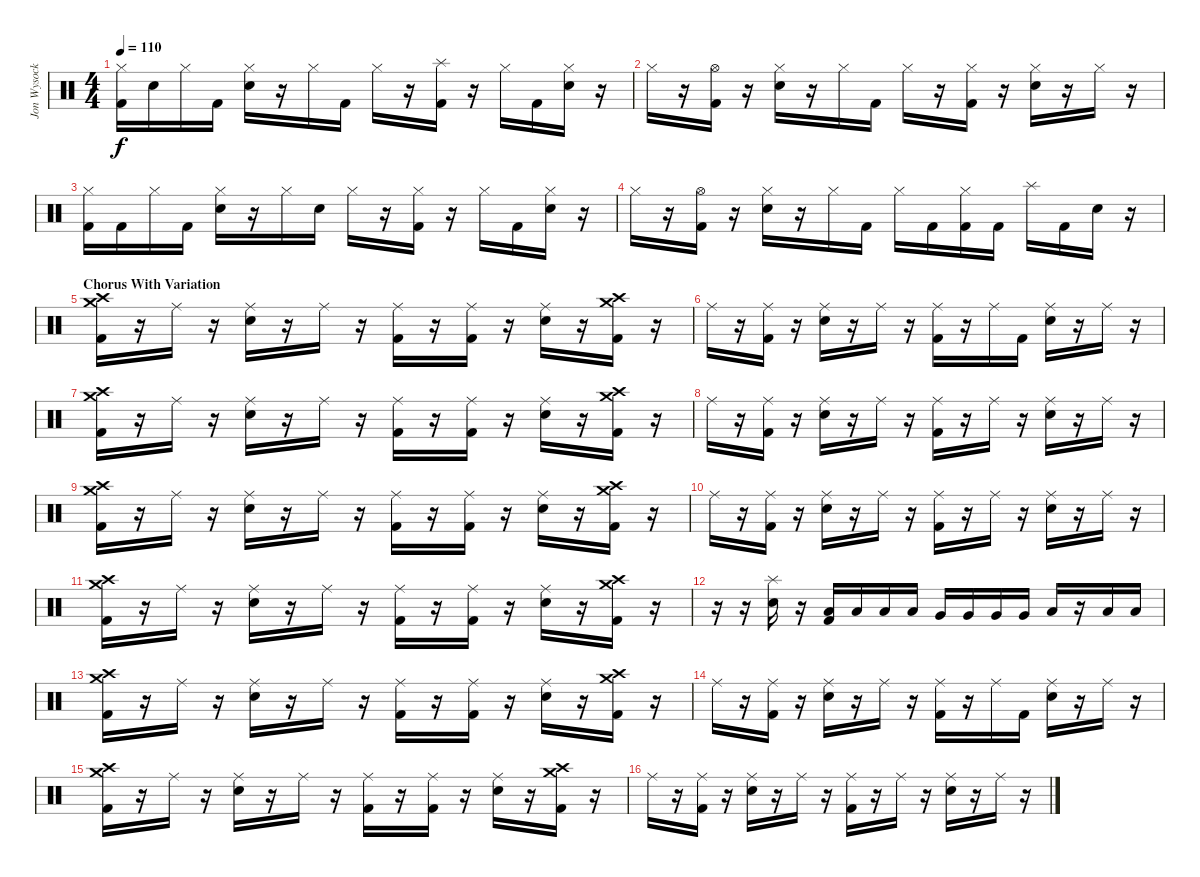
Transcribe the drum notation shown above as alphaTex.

\track ("Jon Wysocki" "Jon Wysock") {instrument percussion}
\staff {score}
\articulation defaults
\ts (4 4)
\tempo 110
\clef neutral
\ks c
("Hi-Hat (closed)" "Kick (hit) 2").16{dy f} "Snare (hit) 2".16 "Hi-Hat (closed)".16 "Kick (hit) 2".16 ("Hi-Hat (closed)" "Snare (hit) 2").16 r.16 "Hi-Hat (closed)".16 "Kick (hit) 2".16 "Hi-Hat (closed)".16 r.16 ("Splash (hit)" "Kick (hit) 2").16 r.16 "Hi-Hat (closed)".16 "Kick (hit) 2".16 ("Hi-Hat (closed)" "Snare (hit) 2").16 r.16 |
"Hi-Hat (closed)".16 r.16 ("Hi-Hat (open)" "Kick (hit) 2").16 r.16 ("Hi-Hat (closed)" "Snare (hit) 2").16 r.16 "Hi-Hat (closed)".16 "Kick (hit) 2".16 "Hi-Hat (closed)".16 r.16 ("Hi-Hat (closed)" "Kick (hit) 2").16 r.16 ("Hi-Hat (closed)" "Snare (hit) 2").16 r.16 "Hi-Hat (closed)".16 r.16 |
("Hi-Hat (closed)" "Kick (hit) 2").16 "Kick (hit) 2".16 "Hi-Hat (closed)".16 "Kick (hit) 2".16 ("Hi-Hat (closed)" "Snare (hit) 2").16 r.16 "Hi-Hat (closed)".16 "Snare (hit) 2".16 "Hi-Hat (closed)".16 r.16 ("Hi-Hat (closed)" "Kick (hit) 2").16 r.16 "Hi-Hat (closed)".16 "Kick (hit) 2".16 ("Hi-Hat (closed)" "Snare (hit) 2").16 r.16 |
"Hi-Hat (closed)".16 r.16 ("Hi-Hat (open)" "Kick (hit) 2").16 r.16 ("Hi-Hat (closed)" "Snare (hit) 2").16 r.16 "Hi-Hat (closed)".16 "Kick (hit) 2".16 "Hi-Hat (closed)".16 "Kick (hit) 2".16 ("Hi-Hat (closed)" "Kick (hit) 2").16 "Kick (hit) 2".16 "Splash (hit)".16 "Kick (hit) 2".16 "Snare (hit) 2".16 r.16 |
\section ("" "Chorus With Variation")
("Crash medium (hit)" "Crash high (hit)" "Kick (hit) 2").16 r.16 "Ride (middle)".16 r.16 ("Ride (middle)" "Snare (hit) 2").16 r.16 "Ride (middle)".16 r.16 ("Ride (middle)" "Kick (hit) 2").16 r.16 ("Ride (middle)" "Kick (hit) 2").16 r.16 ("Ride (middle)" "Snare (hit) 2").16 r.16 ("Crash medium (hit)" "Crash high (hit)" "Kick (hit) 2").16 r.16 |
"Ride (middle)".16 r.16 ("Ride (middle)" "Kick (hit) 2").16 r.16 ("Ride (middle)" "Snare (hit) 2").16 r.16 "Ride (middle)".16 r.16 ("Ride (middle)" "Kick (hit) 2").16 r.16 "Ride (middle)".16 "Kick (hit) 2".16 ("Ride (middle)" "Snare (hit) 2").16 r.16 "Ride (middle)".16 r.16 |
("Crash medium (hit)" "Crash high (hit)" "Kick (hit) 2").16 r.16 "Ride (middle)".16 r.16 ("Ride (middle)" "Snare (hit) 2").16 r.16 "Ride (middle)".16 r.16 ("Ride (middle)" "Kick (hit) 2").16 r.16 ("Ride (middle)" "Kick (hit) 2").16 r.16 ("Ride (middle)" "Snare (hit) 2").16 r.16 ("Crash medium (hit)" "Crash high (hit)" "Kick (hit) 2").16 r.16 |
"Ride (middle)".16 r.16 ("Ride (middle)" "Kick (hit) 2").16 r.16 ("Ride (middle)" "Snare (hit) 2").16 r.16 "Ride (middle)".16 r.16 ("Ride (middle)" "Kick (hit) 2").16 r.16 "Ride (middle)".16 r.16 ("Ride (middle)" "Snare (hit) 2").16 r.16 "Ride (middle)".16 r.16 |
("Crash medium (hit)" "Crash high (hit)" "Kick (hit) 2").16 r.16 "Ride (middle)".16 r.16 ("Ride (middle)" "Snare (hit) 2").16 r.16 "Ride (middle)".16 r.16 ("Ride (middle)" "Kick (hit) 2").16 r.16 ("Ride (middle)" "Kick (hit) 2").16 r.16 ("Ride (middle)" "Snare (hit) 2").16 r.16 ("Crash medium (hit)" "Crash high (hit)" "Kick (hit) 2").16 r.16 |
"Ride (middle)".16 r.16 ("Ride (middle)" "Kick (hit) 2").16 r.16 ("Ride (middle)" "Snare (hit) 2").16 r.16 "Ride (middle)".16 r.16 ("Ride (middle)" "Kick (hit) 2").16 r.16 "Ride (middle)".16 r.16 ("Ride (middle)" "Snare (hit) 2").16 r.16 "Ride (middle)".16 r.16 |
("Crash medium (hit)" "Crash high (hit)" "Kick (hit) 2").16 r.16 "Ride (middle)".16 r.16 ("Ride (middle)" "Snare (hit) 2").16 r.16 "Ride (middle)".16 r.16 ("Ride (middle)" "Kick (hit) 2").16 r.16 ("Ride (middle)" "Kick (hit) 2").16 r.16 ("Ride (middle)" "Snare (hit) 2").16 r.16 ("Crash medium (hit)" "Crash high (hit)" "Kick (hit) 2").16 r.16 |
r.16 r.16 ("Splash (hit)" "Snare (hit) 2").16 r.16 ("Low Tom (hit)" "Kick (hit) 2").16 "Low Tom (hit)".16 "Low Tom (hit)".16 "Low Tom (hit)".16 "Very Low Tom (hit)".16 "Very Low Tom (hit)".16 "Very Low Tom (hit)".16 "Very Low Tom (hit)".16 "Low Floor Tom (hit)".16 r.16 "Low Floor Tom (hit)".16 "Low Floor Tom (hit)".16 |
("Crash medium (hit)" "Crash high (hit)" "Kick (hit) 2").16 r.16 "Ride (middle)".16 r.16 ("Ride (middle)" "Snare (hit) 2").16 r.16 "Ride (middle)".16 r.16 ("Ride (middle)" "Kick (hit) 2").16 r.16 ("Ride (middle)" "Kick (hit) 2").16 r.16 ("Ride (middle)" "Snare (hit) 2").16 r.16 ("Crash medium (hit)" "Crash high (hit)" "Kick (hit) 2").16 r.16 |
"Ride (middle)".16 r.16 ("Ride (middle)" "Kick (hit) 2").16 r.16 ("Ride (middle)" "Snare (hit) 2").16 r.16 "Ride (middle)".16 r.16 ("Ride (middle)" "Kick (hit) 2").16 r.16 "Ride (middle)".16 "Kick (hit) 2".16 ("Ride (middle)" "Snare (hit) 2").16 r.16 "Ride (middle)".16 r.16 |
("Crash medium (hit)" "Crash high (hit)" "Kick (hit) 2").16 r.16 "Ride (middle)".16 r.16 ("Ride (middle)" "Snare (hit) 2").16 r.16 "Ride (middle)".16 r.16 ("Ride (middle)" "Kick (hit) 2").16 r.16 ("Ride (middle)" "Kick (hit) 2").16 r.16 ("Ride (middle)" "Snare (hit) 2").16 r.16 ("Crash medium (hit)" "Crash high (hit)" "Kick (hit) 2").16 r.16 |
"Ride (middle)".16 r.16 ("Ride (middle)" "Kick (hit) 2").16 r.16 ("Ride (middle)" "Snare (hit) 2").16 r.16 "Ride (middle)".16 r.16 ("Ride (middle)" "Kick (hit) 2").16 r.16 "Ride (middle)".16 r.16 ("Ride (middle)" "Snare (hit) 2").16 r.16 "Ride (middle)".16 r.16
